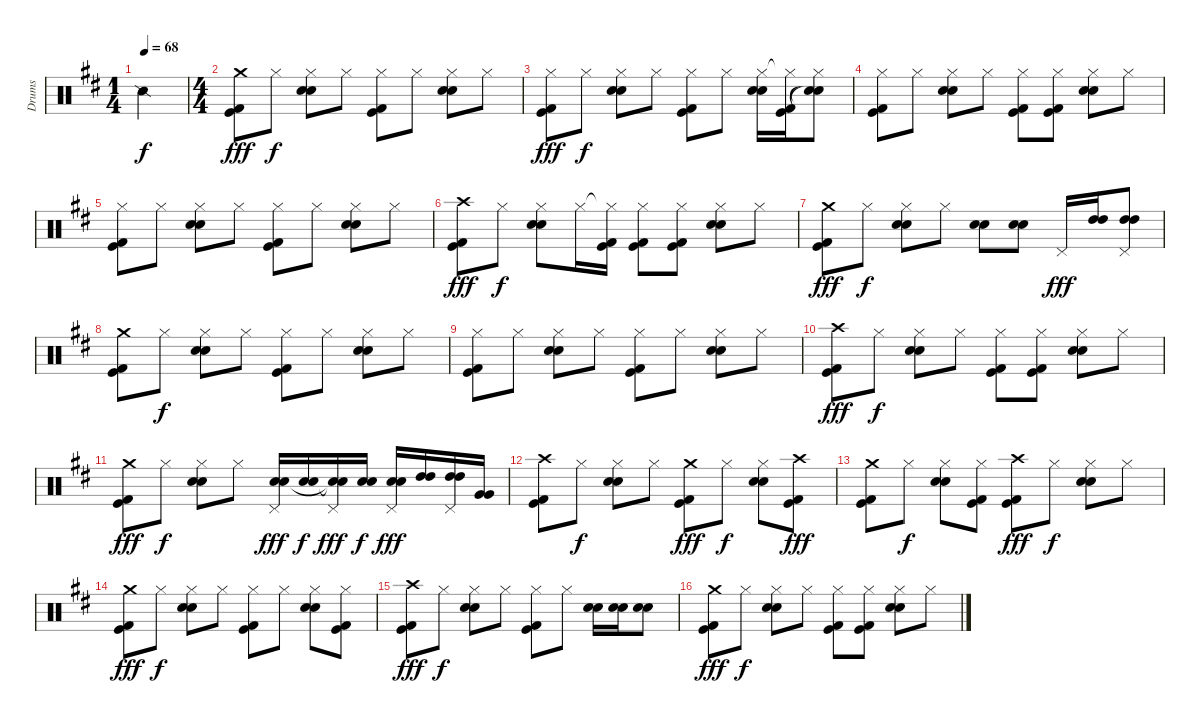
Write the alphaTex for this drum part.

\track ("Drums" "Drums") {instrument percussion}
\staff {score}
\articulation defaults
\ts (1 4)
\tempo 68
\clef neutral
\ks d "Snare (side stick) 2".4{dy f}
|
\ts (4 4)
("Crash medium (hit)" "Kick (hit)" "Kick (hit) 2").8{dy fff} "Hi-Hat (closed)".8{dy f} ("Hi-Hat (closed)" "Electric Snare (hit)" "Snare (hit) 2").8 "Hi-Hat (closed)".8 ("Hi-Hat (closed)" "Kick (hit)" "Kick (hit) 2").8 "Hi-Hat (closed)".8 ("Hi-Hat (closed)" "Electric Snare (hit)" "Snare (hit) 2").8 "Hi-Hat (closed)".8 |
("Hi-Hat (closed)" "Kick (hit)" "Kick (hit) 2").8{dy fff} "Hi-Hat (closed)".8{dy f} ("Hi-Hat (closed)" "Electric Snare (hit)" "Snare (hit) 2").8 "Hi-Hat (closed)".8 ("Hi-Hat (closed)" "Kick (hit)" "Kick (hit) 2").8 "Hi-Hat (closed)".8 ("Hi-Hat (closed)" "Electric Snare (hit)" "Snare (hit) 2").16 ("Hi-Hat (closed)"{t} "Kick (hit)" "Kick (hit) 2").16 ("Hi-Hat (closed)" "Snare (hit)"{t} "Snare (hit)"{t}).8 |
("Hi-Hat (closed)" "Kick (hit)" "Kick (hit) 2").8 "Hi-Hat (closed)".8 ("Hi-Hat (closed)" "Electric Snare (hit)" "Snare (hit) 2").8 "Hi-Hat (closed)".8 ("Hi-Hat (closed)" "Kick (hit)" "Kick (hit) 2").8 ("Hi-Hat (closed)" "Kick (hit)" "Kick (hit) 2").8 ("Hi-Hat (closed)" "Electric Snare (hit)" "Snare (hit) 2").8 "Hi-Hat (closed)".8 |
("Hi-Hat (closed)" "Kick (hit)" "Kick (hit) 2").8 "Hi-Hat (closed)".8 ("Hi-Hat (closed)" "Electric Snare (hit)" "Snare (hit) 2").8 "Hi-Hat (closed)".8 ("Hi-Hat (closed)" "Kick (hit)" "Kick (hit) 2").8 "Hi-Hat (closed)".8 ("Hi-Hat (closed)" "Electric Snare (hit)" "Snare (hit) 2").8 "Hi-Hat (closed)".8 |
("Crash high (hit)" "Kick (hit)" "Kick (hit) 2").8{dy fff} "Hi-Hat (closed)".8{dy f} ("Hi-Hat (closed)" "Electric Snare (hit)" "Snare (hit) 2").8 "Hi-Hat (closed)".16 ("Hi-Hat (closed)"{t} "Kick (hit)" "Kick (hit) 2").16 ("Hi-Hat (closed)" "Kick (hit)" "Kick (hit) 2").8 ("Hi-Hat (closed)" "Kick (hit)" "Kick (hit) 2").8 ("Hi-Hat (closed)" "Electric Snare (hit)" "Snare (hit) 2").8 "Hi-Hat (closed)".8 |
("Crash medium (hit)" "Kick (hit)" "Kick (hit) 2").8{dy fff} "Hi-Hat (closed)".8{dy f} ("Hi-Hat (closed)" "Electric Snare (hit)" "Snare (hit) 2").8 "Hi-Hat (closed)".8 ("Electric Snare (hit)" "Snare (hit) 2").8 ("Electric Snare (hit)" "Snare (hit) 2").8 "Pedal Hi-Hat (hit)".16{dy fff} ("High Tom (hit)" "High Tom (hit)").16 ("Pedal Hi-Hat (hit)" "High Tom (hit)" "High Tom (hit)").8 |
("Crash medium (hit)" "Kick (hit)" "Kick (hit) 2").8 "Hi-Hat (closed)".8{dy f} ("Hi-Hat (closed)" "Electric Snare (hit)" "Snare (hit) 2").8 "Hi-Hat (closed)".8 ("Hi-Hat (closed)" "Kick (hit)" "Kick (hit) 2").8 "Hi-Hat (closed)".8 ("Hi-Hat (closed)" "Electric Snare (hit)" "Snare (hit) 2").8 "Hi-Hat (closed)".8 |
("Hi-Hat (closed)" "Kick (hit)" "Kick (hit) 2").8 "Hi-Hat (closed)".8 ("Hi-Hat (closed)" "Electric Snare (hit)" "Snare (hit) 2").8 "Hi-Hat (closed)".8 ("Hi-Hat (closed)" "Kick (hit)" "Kick (hit) 2").8 "Hi-Hat (closed)".8 ("Hi-Hat (closed)" "Electric Snare (hit)" "Snare (hit) 2").8 "Hi-Hat (closed)".8 |
("Crash high (hit)" "Kick (hit)" "Kick (hit) 2").8{dy fff} "Hi-Hat (closed)".8{dy f} ("Hi-Hat (closed)" "Electric Snare (hit)" "Snare (hit) 2").8 "Hi-Hat (closed)".8 ("Hi-Hat (closed)" "Kick (hit)" "Kick (hit) 2").8 ("Hi-Hat (closed)" "Kick (hit)" "Kick (hit) 2").8 ("Hi-Hat (closed)" "Electric Snare (hit)" "Snare (hit) 2").8 "Hi-Hat (closed)".8 |
("Crash medium (hit)" "Kick (hit)" "Kick (hit) 2").8{dy fff} "Hi-Hat (closed)".8{dy f} ("Hi-Hat (closed)" "Electric Snare (hit)" "Snare (hit) 2").8 "Hi-Hat (closed)".8 ("Pedal Hi-Hat (hit)" "Electric Snare (hit)" "Snare (hit) 2").16{dy fff} ("Electric Snare (hit)" "Snare (hit) 2").16{dy f} ("Pedal Hi-Hat (hit)" "Electric Snare (hit)"{t} "Snare (hit) 2"{t}).16{dy fff} ("Electric Snare (hit)" "Snare (hit) 2").16{dy f} ("Pedal Hi-Hat (hit)" "Electric Snare (hit)" "Snare (hit) 2").16{dy fff} ("High Tom (hit)" "High Tom (hit)").16 ("Pedal Hi-Hat (hit)" "High Tom (hit)" "High Tom (hit)").16 ("Very Low Tom (hit)" "Very Low Tom (hit)").16 |
("Crash high (hit)" "Kick (hit)" "Kick (hit) 2").8 "Hi-Hat (closed)".8{dy f} ("Hi-Hat (closed)" "Electric Snare (hit)" "Snare (hit) 2").8 "Hi-Hat (closed)".8 ("Crash medium (hit)" "Kick (hit)" "Kick (hit) 2").8{dy fff} "Hi-Hat (closed)".8{dy f} ("Hi-Hat (closed)" "Electric Snare (hit)" "Snare (hit) 2").8 ("Crash high (hit)" "Kick (hit)" "Kick (hit) 2").8{dy fff} |
("Crash medium (hit)" "Kick (hit)" "Kick (hit) 2").8 "Hi-Hat (closed)".8{dy f} ("Hi-Hat (closed)" "Electric Snare (hit)" "Snare (hit) 2").8 ("Hi-Hat (closed)" "Kick (hit)" "Kick (hit) 2").8 ("Crash high (hit)" "Kick (hit)" "Kick (hit) 2").8{dy fff} "Hi-Hat (closed)".8{dy f} ("Hi-Hat (closed)" "Electric Snare (hit)" "Snare (hit) 2").8 "Hi-Hat (closed)".8 |
("Crash medium (hit)" "Kick (hit)" "Kick (hit) 2").8{dy fff} "Hi-Hat (closed)".8{dy f} ("Hi-Hat (closed)" "Electric Snare (hit)" "Snare (hit) 2").8 "Hi-Hat (closed)".8 ("Hi-Hat (closed)" "Kick (hit)" "Kick (hit) 2").8 "Hi-Hat (closed)".8 ("Hi-Hat (closed)" "Electric Snare (hit)" "Snare (hit) 2").8 ("Hi-Hat (closed)" "Kick (hit)" "Kick (hit) 2").8 |
("Crash high (hit)" "Kick (hit)" "Kick (hit) 2").8{dy fff} "Hi-Hat (closed)".8{dy f} ("Hi-Hat (closed)" "Electric Snare (hit)" "Snare (hit) 2").8 "Hi-Hat (closed)".8 ("Hi-Hat (closed)" "Kick (hit)" "Kick (hit) 2").8 "Hi-Hat (closed)".8 ("Electric Snare (hit)" "Snare (hit) 2").16 ("Electric Snare (hit)" "Snare (hit) 2").16 ("Electric Snare (hit)" "Snare (hit) 2").8 |
("Crash medium (hit)" "Kick (hit)" "Kick (hit) 2").8{dy fff} "Hi-Hat (closed)".8{dy f} ("Hi-Hat (closed)" "Electric Snare (hit)" "Snare (hit) 2").8 "Hi-Hat (closed)".8 ("Hi-Hat (closed)" "Kick (hit)" "Kick (hit) 2").8 ("Hi-Hat (closed)" "Kick (hit)" "Kick (hit) 2").8 ("Hi-Hat (closed)" "Electric Snare (hit)" "Snare (hit) 2").8 "Hi-Hat (closed)".8
